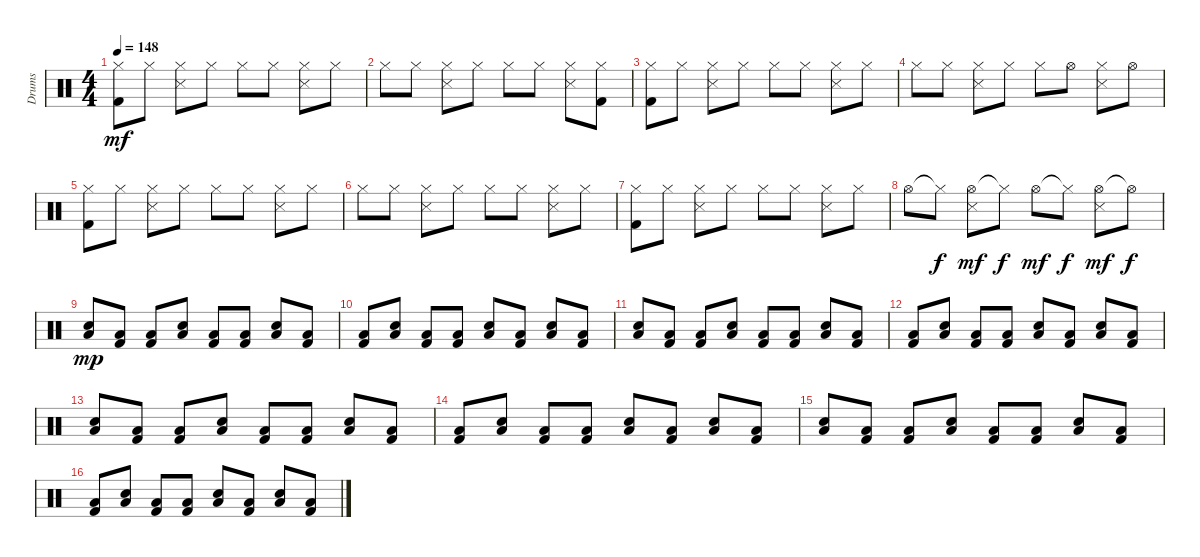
\track ("Drums" "Drums") {instrument percussion}
\staff {score}
\articulation defaults
\ts (4 4)
\tempo 148
\clef neutral
\ks c
("Hi-Hat (closed)" "Kick (hit) 2").8{dy mf} "Hi-Hat (closed)".8 ("Hi-Hat (closed)" "Snare (side stick) 3").8 "Hi-Hat (closed)".8 "Hi-Hat (closed)".8 "Hi-Hat (closed)".8 ("Hi-Hat (closed)" "Snare (side stick) 3").8 "Hi-Hat (closed)".8 |
"Hi-Hat (closed)".8 "Hi-Hat (closed)".8 ("Hi-Hat (closed)" "Snare (side stick) 3").8 "Hi-Hat (closed)".8 "Hi-Hat (closed)".8 "Hi-Hat (closed)".8 ("Hi-Hat (closed)" "Snare (side stick) 3").8 ("Hi-Hat (closed)" "Kick (hit) 2").8 |
("Hi-Hat (closed)" "Kick (hit) 2").8 "Hi-Hat (closed)".8 ("Hi-Hat (closed)" "Snare (side stick) 3").8 "Hi-Hat (closed)".8 "Hi-Hat (closed)".8 "Hi-Hat (closed)".8 ("Hi-Hat (closed)" "Snare (side stick) 3").8 "Hi-Hat (closed)".8 |
"Hi-Hat (closed)".8 "Hi-Hat (closed)".8 ("Hi-Hat (closed)" "Snare (side stick) 3").8 "Hi-Hat (closed)".8 "Hi-Hat (closed)".8 "Hi-Hat (open)".8 ("Hi-Hat (closed)" "Snare (side stick) 3").8 "Hi-Hat (open)".8 |
("Hi-Hat (closed)" "Kick (hit) 2").8 "Hi-Hat (closed)".8 ("Hi-Hat (closed)" "Snare (side stick) 3").8 "Hi-Hat (closed)".8 "Hi-Hat (closed)".8 "Hi-Hat (closed)".8 ("Hi-Hat (closed)" "Snare (side stick) 3").8 "Hi-Hat (closed)".8 |
"Hi-Hat (closed)".8 "Hi-Hat (closed)".8 ("Hi-Hat (closed)" "Snare (side stick) 3").8 "Hi-Hat (closed)".8 "Hi-Hat (closed)".8 "Hi-Hat (closed)".8 ("Hi-Hat (closed)" "Snare (side stick) 3").8 "Hi-Hat (closed)".8 |
("Hi-Hat (closed)" "Kick (hit) 2").8 "Hi-Hat (closed)".8 ("Hi-Hat (closed)" "Snare (side stick) 3").8 "Hi-Hat (closed)".8 "Hi-Hat (closed)".8 "Hi-Hat (closed)".8 ("Hi-Hat (closed)" "Snare (side stick) 3").8 "Hi-Hat (closed)".8 |
"Hi-Hat (open)".8 "Hi-Hat (closed)"{t}.8{dy f} ("Hi-Hat (open)" "Snare (side stick) 3").8{dy mf} "Hi-Hat (closed)"{t}.8{dy f} "Hi-Hat (open)".8{dy mf} "Hi-Hat (closed)"{t}.8{dy f} ("Hi-Hat (open)" "Snare (side stick) 3").8{dy mf} "Hi-Hat (open)"{t}.8{dy f} |
("Low Floor Tom (hit)"{pm} "Electric Snare (hit)").8{dy mp} ("Low Floor Tom (hit)"{pm} "Kick (hit) 2").8 ("Low Floor Tom (hit)"{pm} "Kick (hit) 2").8 ("Low Floor Tom (hit)"{pm} "Electric Snare (hit)").8 ("Low Floor Tom (hit)"{pm} "Kick (hit) 2").8 ("Low Floor Tom (hit)"{pm} "Kick (hit) 2").8 ("Low Floor Tom (hit)"{pm} "Electric Snare (hit)").8 ("Low Floor Tom (hit)"{pm} "Kick (hit) 2").8 |
("Low Floor Tom (hit)"{pm} "Kick (hit) 2").8 ("Low Floor Tom (hit)"{pm} "Electric Snare (hit)").8 ("Low Floor Tom (hit)"{pm} "Kick (hit) 2").8 ("Low Floor Tom (hit)"{pm} "Kick (hit) 2").8 ("Low Floor Tom (hit)"{pm} "Electric Snare (hit)").8 ("Low Floor Tom (hit)"{pm} "Kick (hit) 2").8 ("Low Floor Tom (hit)"{pm} "Electric Snare (hit)").8 ("Low Floor Tom (hit)"{pm} "Kick (hit) 2").8 |
("Low Floor Tom (hit)"{pm} "Electric Snare (hit)").8 ("Low Floor Tom (hit)"{pm} "Kick (hit) 2").8 ("Low Floor Tom (hit)"{pm} "Kick (hit) 2").8 ("Low Floor Tom (hit)"{pm} "Electric Snare (hit)").8 ("Low Floor Tom (hit)"{pm} "Kick (hit) 2").8 ("Low Floor Tom (hit)"{pm} "Kick (hit) 2").8 ("Low Floor Tom (hit)"{pm} "Electric Snare (hit)").8 ("Low Floor Tom (hit)"{pm} "Kick (hit) 2").8 |
("Low Floor Tom (hit)"{pm} "Kick (hit) 2").8 ("Low Floor Tom (hit)"{pm} "Electric Snare (hit)").8 ("Low Floor Tom (hit)"{pm} "Kick (hit) 2").8 ("Low Floor Tom (hit)"{pm} "Kick (hit) 2").8 ("Low Floor Tom (hit)"{pm} "Electric Snare (hit)").8 ("Low Floor Tom (hit)"{pm} "Kick (hit) 2").8 ("Low Floor Tom (hit)"{pm} "Electric Snare (hit)").8 ("Low Floor Tom (hit)"{pm} "Kick (hit) 2").8 |
("Low Floor Tom (hit)"{pm} "Electric Snare (hit)").8 ("Low Floor Tom (hit)"{pm} "Kick (hit) 2").8 ("Low Floor Tom (hit)"{pm} "Kick (hit) 2").8 ("Low Floor Tom (hit)"{pm} "Electric Snare (hit)").8 ("Low Floor Tom (hit)"{pm} "Kick (hit) 2").8 ("Low Floor Tom (hit)"{pm} "Kick (hit) 2").8 ("Low Floor Tom (hit)"{pm} "Electric Snare (hit)").8 ("Low Floor Tom (hit)"{pm} "Kick (hit) 2").8 |
("Low Floor Tom (hit)"{pm} "Kick (hit) 2").8 ("Low Floor Tom (hit)"{pm} "Electric Snare (hit)").8 ("Low Floor Tom (hit)"{pm} "Kick (hit) 2").8 ("Low Floor Tom (hit)"{pm} "Kick (hit) 2").8 ("Low Floor Tom (hit)"{pm} "Electric Snare (hit)").8 ("Low Floor Tom (hit)"{pm} "Kick (hit) 2").8 ("Low Floor Tom (hit)"{pm} "Electric Snare (hit)").8 ("Low Floor Tom (hit)"{pm} "Kick (hit) 2").8 |
("Low Floor Tom (hit)"{pm} "Electric Snare (hit)").8 ("Low Floor Tom (hit)"{pm} "Kick (hit) 2").8 ("Low Floor Tom (hit)"{pm} "Kick (hit) 2").8 ("Low Floor Tom (hit)"{pm} "Electric Snare (hit)").8 ("Low Floor Tom (hit)"{pm} "Kick (hit) 2").8 ("Low Floor Tom (hit)"{pm} "Kick (hit) 2").8 ("Low Floor Tom (hit)"{pm} "Electric Snare (hit)").8 ("Low Floor Tom (hit)"{pm} "Kick (hit) 2").8 |
("Low Floor Tom (hit)"{pm} "Kick (hit) 2").8 ("Low Floor Tom (hit)"{pm} "Electric Snare (hit)").8 ("Low Floor Tom (hit)"{pm} "Kick (hit) 2").8 ("Low Floor Tom (hit)"{pm} "Kick (hit) 2").8 ("Low Floor Tom (hit)"{pm} "Electric Snare (hit)").8 ("Low Floor Tom (hit)"{pm} "Kick (hit) 2").8 ("Low Floor Tom (hit)"{pm} "Electric Snare (hit)").8 ("Low Floor Tom (hit)"{pm} "Kick (hit) 2").8
